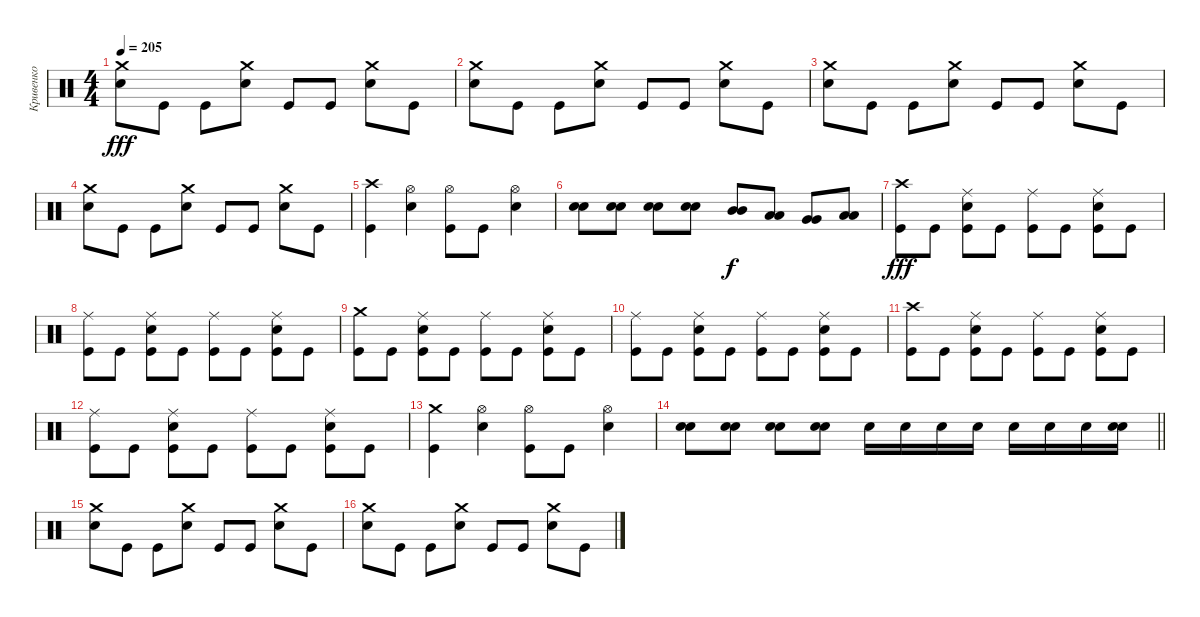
\track ("Кривенко" "Кривенко") {instrument percussion}
\staff {score}
\articulation defaults
\ts (4 4)
\tempo 205
\clef neutral
\ks c
("Crash medium (hit)" "Electric Snare (hit)").8{dy fff} "Kick (hit)".8 "Kick (hit)".8 ("Crash medium (hit)" "Electric Snare (hit)").8 "Kick (hit)".8 "Kick (hit)".8 ("Crash medium (hit)" "Electric Snare (hit)").8 "Kick (hit)".8 |
("Crash medium (hit)" "Electric Snare (hit)").8 "Kick (hit)".8 "Kick (hit)".8 ("Crash medium (hit)" "Electric Snare (hit)").8 "Kick (hit)".8 "Kick (hit)".8 ("Crash medium (hit)" "Electric Snare (hit)").8 "Kick (hit)".8 |
("Crash medium (hit)" "Electric Snare (hit)").8 "Kick (hit)".8 "Kick (hit)".8 ("Crash medium (hit)" "Electric Snare (hit)").8 "Kick (hit)".8 "Kick (hit)".8 ("Crash medium (hit)" "Electric Snare (hit)").8 "Kick (hit)".8 |
("Crash medium (hit)" "Electric Snare (hit)").8 "Kick (hit)".8 "Kick (hit)".8 ("Crash medium (hit)" "Electric Snare (hit)").8 "Kick (hit)".8 "Kick (hit)".8 ("Crash medium (hit)" "Electric Snare (hit)").8 "Kick (hit)".8 |
("Crash high (hit)" "Kick (hit)").4 ("Hi-Hat (open)" "Electric Snare (hit)").4 ("Hi-Hat (open)" "Kick (hit)").8 "Kick (hit)".8 ("Hi-Hat (open)" "Electric Snare (hit)").4 |
("Electric Snare (hit)" "Electric Snare (hit)").8 ("Electric Snare (hit)" "Electric Snare (hit)").8 ("Electric Snare (hit)" "Electric Snare (hit)").8 ("Electric Snare (hit)" "Electric Snare (hit)").8 ("Mid Tom (hit)" "Mid Tom (hit)").8{dy f} ("Low Tom (hit)" "Low Tom (hit)").8 ("Very Low Tom (hit)" "Very Low Tom (hit)").8 ("Low Floor Tom (hit)" "Low Floor Tom (hit)").8 |
("Crash high (hit)" "Kick (hit)").8{dy fff} "Kick (hit)".8 ("Ride (middle)" "Electric Snare (hit)" "Kick (hit)").8 "Kick (hit)".8 ("Ride (middle)" "Kick (hit)").8 "Kick (hit)".8 ("Ride (middle)" "Electric Snare (hit)" "Kick (hit)").8 "Kick (hit)".8 |
("Ride (middle)" "Kick (hit)").8 "Kick (hit)".8 ("Ride (middle)" "Electric Snare (hit)" "Kick (hit)").8 "Kick (hit)".8 ("Ride (middle)" "Kick (hit)").8 "Kick (hit)".8 ("Ride (middle)" "Electric Snare (hit)" "Kick (hit)").8 "Kick (hit)".8 |
("Crash medium (hit)" "Kick (hit)").8 "Kick (hit)".8 ("Ride (middle)" "Electric Snare (hit)" "Kick (hit)").8 "Kick (hit)".8 ("Ride (middle)" "Kick (hit)").8 "Kick (hit)".8 ("Ride (middle)" "Electric Snare (hit)" "Kick (hit)").8 "Kick (hit)".8 |
("Ride (middle)" "Kick (hit)").8 "Kick (hit)".8 ("Ride (middle)" "Electric Snare (hit)" "Kick (hit)").8 "Kick (hit)".8 ("Ride (middle)" "Kick (hit)").8 "Kick (hit)".8 ("Ride (middle)" "Electric Snare (hit)" "Kick (hit)").8 "Kick (hit)".8 |
("Crash high (hit)" "Kick (hit)").8 "Kick (hit)".8 ("Ride (middle)" "Electric Snare (hit)" "Kick (hit)").8 "Kick (hit)".8 ("Ride (middle)" "Kick (hit)").8 "Kick (hit)".8 ("Ride (middle)" "Electric Snare (hit)" "Kick (hit)").8 "Kick (hit)".8 |
("Ride (middle)" "Kick (hit)").8 "Kick (hit)".8 ("Ride (middle)" "Electric Snare (hit)" "Kick (hit)").8 "Kick (hit)".8 ("Ride (middle)" "Kick (hit)").8 "Kick (hit)".8 ("Ride (middle)" "Electric Snare (hit)" "Kick (hit)").8 "Kick (hit)".8 |
("Crash medium (hit)" "Kick (hit)").4 ("Hi-Hat (open)" "Electric Snare (hit)").4 ("Hi-Hat (open)" "Kick (hit)").8 "Kick (hit)".8 ("Hi-Hat (open)" "Electric Snare (hit)").4 |
\barLineRight lightlight
("Electric Snare (hit)" "Electric Snare (hit)").8 ("Electric Snare (hit)" "Electric Snare (hit)").8 ("Electric Snare (hit)" "Electric Snare (hit)").8 ("Electric Snare (hit)" "Electric Snare (hit)").8 "Electric Snare (hit)".16 "Electric Snare (hit)".16 "Electric Snare (hit)".16 "Electric Snare (hit)".16 "Electric Snare (hit)".16 "Electric Snare (hit)".16 "Electric Snare (hit)".16 ("Electric Snare (hit)" "Electric Snare (hit)").16 |
\section ("" "")
("Crash medium (hit)" "Electric Snare (hit)").8 "Kick (hit)".8 "Kick (hit)".8 ("Crash medium (hit)" "Electric Snare (hit)").8 "Kick (hit)".8 "Kick (hit)".8 ("Crash medium (hit)" "Electric Snare (hit)").8 "Kick (hit)".8 |
("Crash medium (hit)" "Electric Snare (hit)").8 "Kick (hit)".8 "Kick (hit)".8 ("Crash medium (hit)" "Electric Snare (hit)").8 "Kick (hit)".8 "Kick (hit)".8 ("Crash medium (hit)" "Electric Snare (hit)").8 "Kick (hit)".8
